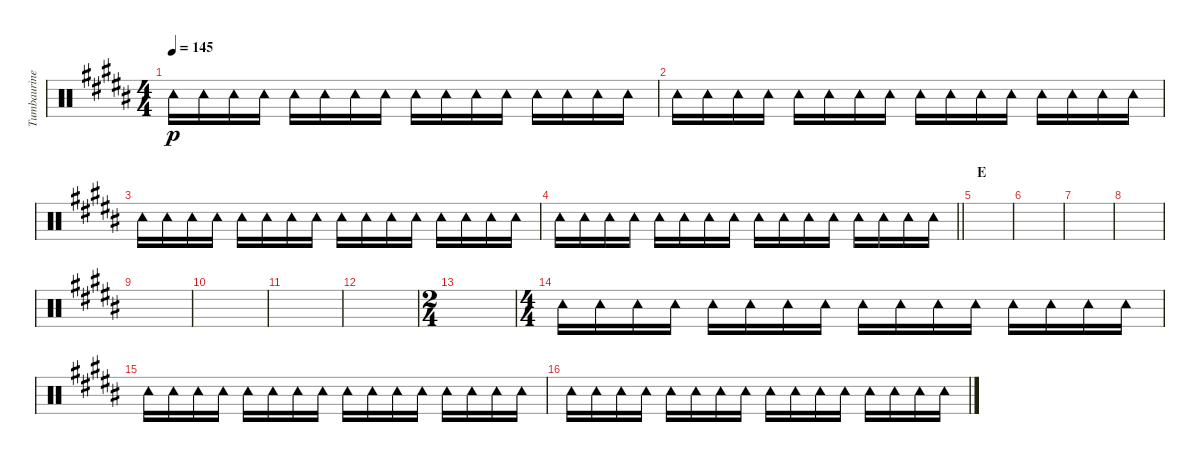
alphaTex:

\track ("Tumbaurine" "Tumbaurine") {instrument percussion}
\staff {score}
\articulation defaults
\ts (4 4)
\tempo 145
\clef neutral
\ks b "Tambourine (hit)".16{dy p} "Tambourine (hit)".16 "Tambourine (hit)".16 "Tambourine (hit)".16 "Tambourine (hit)".16 "Tambourine (hit)".16 "Tambourine (hit)".16 "Tambourine (hit)".16 "Tambourine (hit)".16 "Tambourine (hit)".16 "Tambourine (hit)".16 "Tambourine (hit)".16 "Tambourine (hit)".16 "Tambourine (hit)".16 "Tambourine (hit)".16 "Tambourine (hit)".16
|
"Tambourine (hit)".16 "Tambourine (hit)".16 "Tambourine (hit)".16 "Tambourine (hit)".16 "Tambourine (hit)".16 "Tambourine (hit)".16 "Tambourine (hit)".16 "Tambourine (hit)".16 "Tambourine (hit)".16 "Tambourine (hit)".16 "Tambourine (hit)".16 "Tambourine (hit)".16 "Tambourine (hit)".16 "Tambourine (hit)".16 "Tambourine (hit)".16 "Tambourine (hit)".16 |
"Tambourine (hit)".16 "Tambourine (hit)".16 "Tambourine (hit)".16 "Tambourine (hit)".16 "Tambourine (hit)".16 "Tambourine (hit)".16 "Tambourine (hit)".16 "Tambourine (hit)".16 "Tambourine (hit)".16 "Tambourine (hit)".16 "Tambourine (hit)".16 "Tambourine (hit)".16 "Tambourine (hit)".16 "Tambourine (hit)".16 "Tambourine (hit)".16 "Tambourine (hit)".16 |
\barLineRight lightlight "Tambourine (hit)".16 "Tambourine (hit)".16 "Tambourine (hit)".16 "Tambourine (hit)".16 "Tambourine (hit)".16 "Tambourine (hit)".16 "Tambourine (hit)".16 "Tambourine (hit)".16 "Tambourine (hit)".16 "Tambourine (hit)".16 "Tambourine (hit)".16 "Tambourine (hit)".16 "Tambourine (hit)".16 "Tambourine (hit)".16 "Tambourine (hit)".16 "Tambourine (hit)".16
|
\section ("" "E")
|
|
|
|
|
|
|
|
\ts (2 4)
|
\ts (4 4)
"Tambourine (hit)".16 "Tambourine (hit)".16 "Tambourine (hit)".16 "Tambourine (hit)".16 "Tambourine (hit)".16 "Tambourine (hit)".16 "Tambourine (hit)".16 "Tambourine (hit)".16 "Tambourine (hit)".16 "Tambourine (hit)".16 "Tambourine (hit)".16 "Tambourine (hit)".16 "Tambourine (hit)".16 "Tambourine (hit)".16 "Tambourine (hit)".16 "Tambourine (hit)".16 |
"Tambourine (hit)".16 "Tambourine (hit)".16 "Tambourine (hit)".16 "Tambourine (hit)".16 "Tambourine (hit)".16 "Tambourine (hit)".16 "Tambourine (hit)".16 "Tambourine (hit)".16 "Tambourine (hit)".16 "Tambourine (hit)".16 "Tambourine (hit)".16 "Tambourine (hit)".16 "Tambourine (hit)".16 "Tambourine (hit)".16 "Tambourine (hit)".16 "Tambourine (hit)".16 |
"Tambourine (hit)".16 "Tambourine (hit)".16 "Tambourine (hit)".16 "Tambourine (hit)".16 "Tambourine (hit)".16 "Tambourine (hit)".16 "Tambourine (hit)".16 "Tambourine (hit)".16 "Tambourine (hit)".16 "Tambourine (hit)".16 "Tambourine (hit)".16 "Tambourine (hit)".16 "Tambourine (hit)".16 "Tambourine (hit)".16 "Tambourine (hit)".16 "Tambourine (hit)".16
